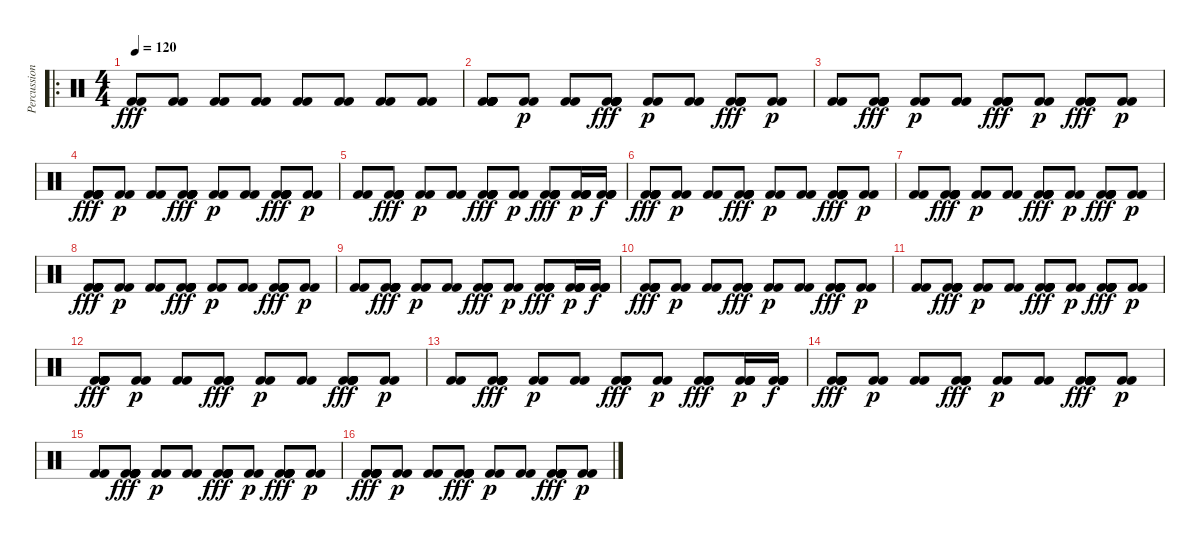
\track ("Percussions" "Percussion") {instrument percussion}
\staff {score}
\articulation defaults
\ro
\ts (4 4)
\tempo 120
\clef neutral
\ks c
("Kick (hit) 2" "Kick (hit) 2").8{dy fff} ("Kick (hit) 2" "Kick (hit) 2").8 ("Kick (hit) 2" "Kick (hit) 2").8 ("Kick (hit) 2" "Kick (hit) 2").8 ("Kick (hit) 2" "Kick (hit) 2").8 ("Kick (hit) 2" "Kick (hit) 2").8 ("Kick (hit) 2" "Kick (hit) 2").8 ("Kick (hit) 2" "Kick (hit) 2").8 |
("Kick (hit) 2" "Kick (hit) 2" "Kick (hit) 2" "Kick (hit) 2" "Kick (hit) 2" "Kick (hit) 2").8 ("Kick (hit) 2" "Kick (hit) 2").8{dy p} ("Kick (hit) 2" "Kick (hit) 2").8 ("Kick (hit) 2" "Kick (hit) 2" "Kick (hit) 2" "Kick (hit) 2" "Kick (hit) 2" "Kick (hit) 2").8{dy fff} ("Kick (hit) 2" "Kick (hit) 2").8{dy p} ("Kick (hit) 2" "Kick (hit) 2").8 ("Kick (hit) 2" "Kick (hit) 2" "Kick (hit) 2" "Kick (hit) 2" "Kick (hit) 2" "Kick (hit) 2").8{dy fff} ("Kick (hit) 2" "Kick (hit) 2").8{dy p} |
("Kick (hit) 2" "Kick (hit) 2").8 ("Kick (hit) 2" "Kick (hit) 2" "Kick (hit) 2" "Kick (hit) 2" "Kick (hit) 2" "Kick (hit) 2").8{dy fff} ("Kick (hit) 2" "Kick (hit) 2").8{dy p} ("Kick (hit) 2" "Kick (hit) 2").8 ("Kick (hit) 2" "Kick (hit) 2" "Kick (hit) 2" "Kick (hit) 2" "Kick (hit) 2" "Kick (hit) 2").8{dy fff} ("Kick (hit) 2" "Kick (hit) 2").8{dy p} ("Kick (hit) 2" "Kick (hit) 2" "Kick (hit) 2" "Kick (hit) 2" "Kick (hit) 2" "Kick (hit) 2").8{dy fff} ("Kick (hit) 2" "Kick (hit) 2").8{dy p} |
("Kick (hit) 2" "Kick (hit) 2" "Kick (hit) 2" "Kick (hit) 2" "Kick (hit) 2" "Kick (hit) 2").8{dy fff} ("Kick (hit) 2" "Kick (hit) 2").8{dy p} ("Kick (hit) 2" "Kick (hit) 2").8 ("Kick (hit) 2" "Kick (hit) 2" "Kick (hit) 2" "Kick (hit) 2" "Kick (hit) 2" "Kick (hit) 2").8{dy fff} ("Kick (hit) 2" "Kick (hit) 2").8{dy p} ("Kick (hit) 2" "Kick (hit) 2").8 ("Kick (hit) 2" "Kick (hit) 2" "Kick (hit) 2" "Kick (hit) 2" "Kick (hit) 2" "Kick (hit) 2").8{dy fff} ("Kick (hit) 2" "Kick (hit) 2").8{dy p} |
("Kick (hit) 2" "Kick (hit) 2").8 ("Kick (hit) 2" "Kick (hit) 2" "Kick (hit) 2" "Kick (hit) 2" "Kick (hit) 2" "Kick (hit) 2").8{dy fff} ("Kick (hit) 2" "Kick (hit) 2").8{dy p} ("Kick (hit) 2" "Kick (hit) 2").8 ("Kick (hit) 2" "Kick (hit) 2" "Kick (hit) 2" "Kick (hit) 2" "Kick (hit) 2" "Kick (hit) 2").8{dy fff} ("Kick (hit) 2" "Kick (hit) 2").8{dy p} ("Kick (hit) 2" "Kick (hit) 2" "Kick (hit) 2" "Kick (hit) 2" "Kick (hit) 2" "Kick (hit) 2").8{dy fff} ("Kick (hit) 2" "Kick (hit) 2" "Kick (hit) 2" "Kick (hit) 2").16{dy p} ("Kick (hit) 2" "Kick (hit) 2" "Kick (hit) 2" "Kick (hit) 2").16{dy f} |
("Kick (hit) 2" "Kick (hit) 2" "Kick (hit) 2" "Kick (hit) 2" "Kick (hit) 2" "Kick (hit) 2").8{dy fff} ("Kick (hit) 2" "Kick (hit) 2").8{dy p} ("Kick (hit) 2" "Kick (hit) 2").8 ("Kick (hit) 2" "Kick (hit) 2" "Kick (hit) 2" "Kick (hit) 2" "Kick (hit) 2" "Kick (hit) 2").8{dy fff} ("Kick (hit) 2" "Kick (hit) 2").8{dy p} ("Kick (hit) 2" "Kick (hit) 2").8 ("Kick (hit) 2" "Kick (hit) 2" "Kick (hit) 2" "Kick (hit) 2" "Kick (hit) 2" "Kick (hit) 2").8{dy fff} ("Kick (hit) 2" "Kick (hit) 2").8{dy p} |
("Kick (hit) 2" "Kick (hit) 2").8 ("Kick (hit) 2" "Kick (hit) 2" "Kick (hit) 2" "Kick (hit) 2" "Kick (hit) 2" "Kick (hit) 2").8{dy fff} ("Kick (hit) 2" "Kick (hit) 2").8{dy p} ("Kick (hit) 2" "Kick (hit) 2").8 ("Kick (hit) 2" "Kick (hit) 2" "Kick (hit) 2" "Kick (hit) 2" "Kick (hit) 2" "Kick (hit) 2").8{dy fff} ("Kick (hit) 2" "Kick (hit) 2").8{dy p} ("Kick (hit) 2" "Kick (hit) 2" "Kick (hit) 2" "Kick (hit) 2" "Kick (hit) 2" "Kick (hit) 2").8{dy fff} ("Kick (hit) 2" "Kick (hit) 2").8{dy p} |
("Kick (hit) 2" "Kick (hit) 2" "Kick (hit) 2" "Kick (hit) 2" "Kick (hit) 2" "Kick (hit) 2").8{dy fff} ("Kick (hit) 2" "Kick (hit) 2").8{dy p} ("Kick (hit) 2" "Kick (hit) 2").8 ("Kick (hit) 2" "Kick (hit) 2" "Kick (hit) 2" "Kick (hit) 2" "Kick (hit) 2" "Kick (hit) 2").8{dy fff} ("Kick (hit) 2" "Kick (hit) 2").8{dy p} ("Kick (hit) 2" "Kick (hit) 2").8 ("Kick (hit) 2" "Kick (hit) 2" "Kick (hit) 2" "Kick (hit) 2" "Kick (hit) 2" "Kick (hit) 2").8{dy fff} ("Kick (hit) 2" "Kick (hit) 2").8{dy p} |
("Kick (hit) 2" "Kick (hit) 2").8 ("Kick (hit) 2" "Kick (hit) 2" "Kick (hit) 2" "Kick (hit) 2" "Kick (hit) 2" "Kick (hit) 2").8{dy fff} ("Kick (hit) 2" "Kick (hit) 2").8{dy p} ("Kick (hit) 2" "Kick (hit) 2").8 ("Kick (hit) 2" "Kick (hit) 2" "Kick (hit) 2" "Kick (hit) 2" "Kick (hit) 2" "Kick (hit) 2").8{dy fff} ("Kick (hit) 2" "Kick (hit) 2").8{dy p} ("Kick (hit) 2" "Kick (hit) 2" "Kick (hit) 2" "Kick (hit) 2" "Kick (hit) 2" "Kick (hit) 2").8{dy fff} ("Kick (hit) 2" "Kick (hit) 2" "Kick (hit) 2" "Kick (hit) 2").16{dy p} ("Kick (hit) 2" "Kick (hit) 2" "Kick (hit) 2" "Kick (hit) 2").16{dy f} |
("Kick (hit) 2" "Kick (hit) 2" "Kick (hit) 2" "Kick (hit) 2" "Kick (hit) 2" "Kick (hit) 2").8{dy fff} ("Kick (hit) 2" "Kick (hit) 2").8{dy p} ("Kick (hit) 2" "Kick (hit) 2").8 ("Kick (hit) 2" "Kick (hit) 2" "Kick (hit) 2" "Kick (hit) 2" "Kick (hit) 2" "Kick (hit) 2").8{dy fff} ("Kick (hit) 2" "Kick (hit) 2").8{dy p} ("Kick (hit) 2" "Kick (hit) 2").8 ("Kick (hit) 2" "Kick (hit) 2" "Kick (hit) 2" "Kick (hit) 2" "Kick (hit) 2" "Kick (hit) 2").8{dy fff} ("Kick (hit) 2" "Kick (hit) 2").8{dy p} |
("Kick (hit) 2" "Kick (hit) 2").8 ("Kick (hit) 2" "Kick (hit) 2" "Kick (hit) 2" "Kick (hit) 2" "Kick (hit) 2" "Kick (hit) 2").8{dy fff} ("Kick (hit) 2" "Kick (hit) 2").8{dy p} ("Kick (hit) 2" "Kick (hit) 2").8 ("Kick (hit) 2" "Kick (hit) 2" "Kick (hit) 2" "Kick (hit) 2" "Kick (hit) 2" "Kick (hit) 2").8{dy fff} ("Kick (hit) 2" "Kick (hit) 2").8{dy p} ("Kick (hit) 2" "Kick (hit) 2" "Kick (hit) 2" "Kick (hit) 2" "Kick (hit) 2" "Kick (hit) 2").8{dy fff} ("Kick (hit) 2" "Kick (hit) 2").8{dy p} |
("Kick (hit) 2" "Kick (hit) 2" "Kick (hit) 2" "Kick (hit) 2" "Kick (hit) 2" "Kick (hit) 2").8{dy fff} ("Kick (hit) 2" "Kick (hit) 2").8{dy p} ("Kick (hit) 2" "Kick (hit) 2").8 ("Kick (hit) 2" "Kick (hit) 2" "Kick (hit) 2" "Kick (hit) 2" "Kick (hit) 2" "Kick (hit) 2").8{dy fff} ("Kick (hit) 2" "Kick (hit) 2").8{dy p} ("Kick (hit) 2" "Kick (hit) 2").8 ("Kick (hit) 2" "Kick (hit) 2" "Kick (hit) 2" "Kick (hit) 2" "Kick (hit) 2" "Kick (hit) 2").8{dy fff} ("Kick (hit) 2" "Kick (hit) 2").8{dy p} |
("Kick (hit) 2" "Kick (hit) 2").8 ("Kick (hit) 2" "Kick (hit) 2" "Kick (hit) 2" "Kick (hit) 2" "Kick (hit) 2" "Kick (hit) 2").8{dy fff} ("Kick (hit) 2" "Kick (hit) 2").8{dy p} ("Kick (hit) 2" "Kick (hit) 2").8 ("Kick (hit) 2" "Kick (hit) 2" "Kick (hit) 2" "Kick (hit) 2" "Kick (hit) 2" "Kick (hit) 2").8{dy fff} ("Kick (hit) 2" "Kick (hit) 2").8{dy p} ("Kick (hit) 2" "Kick (hit) 2" "Kick (hit) 2" "Kick (hit) 2" "Kick (hit) 2" "Kick (hit) 2").8{dy fff} ("Kick (hit) 2" "Kick (hit) 2" "Kick (hit) 2" "Kick (hit) 2").16{dy p} ("Kick (hit) 2" "Kick (hit) 2" "Kick (hit) 2" "Kick (hit) 2").16{dy f} |
("Kick (hit) 2" "Kick (hit) 2" "Kick (hit) 2" "Kick (hit) 2" "Kick (hit) 2" "Kick (hit) 2").8{dy fff} ("Kick (hit) 2" "Kick (hit) 2").8{dy p} ("Kick (hit) 2" "Kick (hit) 2").8 ("Kick (hit) 2" "Kick (hit) 2" "Kick (hit) 2" "Kick (hit) 2" "Kick (hit) 2" "Kick (hit) 2").8{dy fff} ("Kick (hit) 2" "Kick (hit) 2").8{dy p} ("Kick (hit) 2" "Kick (hit) 2").8 ("Kick (hit) 2" "Kick (hit) 2" "Kick (hit) 2" "Kick (hit) 2" "Kick (hit) 2" "Kick (hit) 2").8{dy fff} ("Kick (hit) 2" "Kick (hit) 2").8{dy p} |
("Kick (hit) 2" "Kick (hit) 2").8 ("Kick (hit) 2" "Kick (hit) 2" "Kick (hit) 2" "Kick (hit) 2" "Kick (hit) 2" "Kick (hit) 2").8{dy fff} ("Kick (hit) 2" "Kick (hit) 2").8{dy p} ("Kick (hit) 2" "Kick (hit) 2").8 ("Kick (hit) 2" "Kick (hit) 2" "Kick (hit) 2" "Kick (hit) 2" "Kick (hit) 2" "Kick (hit) 2").8{dy fff} ("Kick (hit) 2" "Kick (hit) 2").8{dy p} ("Kick (hit) 2" "Kick (hit) 2" "Kick (hit) 2" "Kick (hit) 2" "Kick (hit) 2" "Kick (hit) 2").8{dy fff} ("Kick (hit) 2" "Kick (hit) 2").8{dy p} |
("Kick (hit) 2" "Kick (hit) 2" "Kick (hit) 2" "Kick (hit) 2" "Kick (hit) 2" "Kick (hit) 2").8{dy fff} ("Kick (hit) 2" "Kick (hit) 2").8{dy p} ("Kick (hit) 2" "Kick (hit) 2").8 ("Kick (hit) 2" "Kick (hit) 2" "Kick (hit) 2" "Kick (hit) 2" "Kick (hit) 2" "Kick (hit) 2").8{dy fff} ("Kick (hit) 2" "Kick (hit) 2").8{dy p} ("Kick (hit) 2" "Kick (hit) 2").8 ("Kick (hit) 2" "Kick (hit) 2" "Kick (hit) 2" "Kick (hit) 2" "Kick (hit) 2" "Kick (hit) 2").8{dy fff} ("Kick (hit) 2" "Kick (hit) 2").8{dy p}
